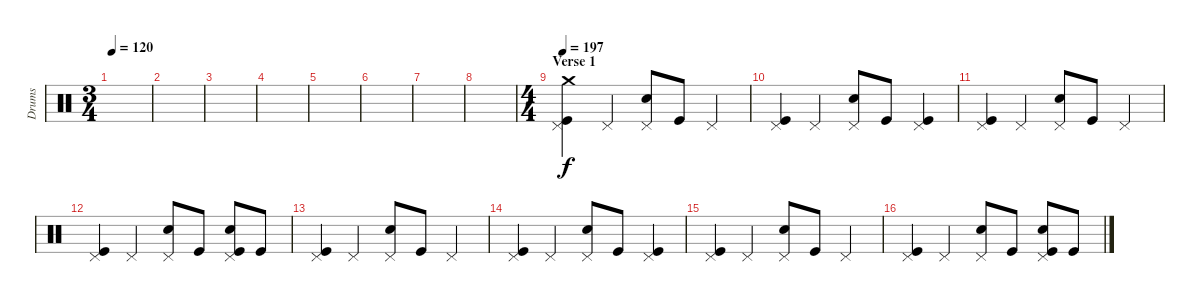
\track ("Drums" "Drums") {instrument percussion}
\staff {score}
\articulation defaults
\ts (3 4)
\tempo 120
\clef neutral
\ks c
|
|
|
|
|
|
|
|
\ts (4 4)
\section ("" "Verse 1")
\tempo 197
("Crash medium (hit)" "Pedal Hi-Hat (hit)" "Kick (hit)").4{volume 16} "Pedal Hi-Hat (hit)".4 ("Pedal Hi-Hat (hit)" "Snare (hit) 2").8 "Kick (hit)".8 "Pedal Hi-Hat (hit)".4 |
("Pedal Hi-Hat (hit)" "Kick (hit)").4 "Pedal Hi-Hat (hit)".4 ("Pedal Hi-Hat (hit)" "Snare (hit) 2").8 "Kick (hit)".8 ("Pedal Hi-Hat (hit)" "Kick (hit)").4 |
("Pedal Hi-Hat (hit)" "Kick (hit)").4 "Pedal Hi-Hat (hit)".4 ("Pedal Hi-Hat (hit)" "Snare (hit) 2").8 "Kick (hit)".8 "Pedal Hi-Hat (hit)".4 |
("Pedal Hi-Hat (hit)" "Kick (hit)").4 "Pedal Hi-Hat (hit)".4 ("Pedal Hi-Hat (hit)" "Snare (hit) 2").8 "Kick (hit)".8 ("Pedal Hi-Hat (hit)" "Snare (hit) 2" "Kick (hit)").8 "Kick (hit)".8 |
("Pedal Hi-Hat (hit)" "Kick (hit)").4 "Pedal Hi-Hat (hit)".4 ("Pedal Hi-Hat (hit)" "Snare (hit) 2").8 "Kick (hit)".8 "Pedal Hi-Hat (hit)".4 |
("Pedal Hi-Hat (hit)" "Kick (hit)").4 "Pedal Hi-Hat (hit)".4 ("Pedal Hi-Hat (hit)" "Snare (hit) 2").8 "Kick (hit)".8 ("Pedal Hi-Hat (hit)" "Kick (hit)").4 |
("Pedal Hi-Hat (hit)" "Kick (hit)").4 "Pedal Hi-Hat (hit)".4 ("Pedal Hi-Hat (hit)" "Snare (hit) 2").8 "Kick (hit)".8 "Pedal Hi-Hat (hit)".4 |
("Pedal Hi-Hat (hit)" "Kick (hit)").4 "Pedal Hi-Hat (hit)".4 ("Pedal Hi-Hat (hit)" "Snare (hit) 2").8 "Kick (hit)".8 ("Pedal Hi-Hat (hit)" "Snare (hit) 2" "Kick (hit)").8 "Kick (hit)".8
